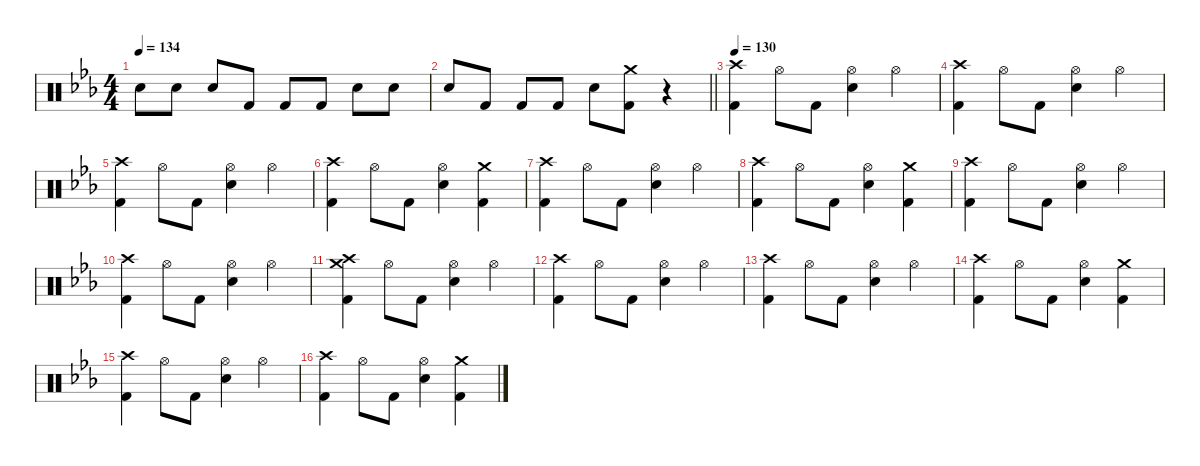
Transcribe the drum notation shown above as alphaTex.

\defaultSystemsLayout 4
\hideDynamics
\bracketExtendMode nobrackets
\singleTrackTrackNamePolicy hidden
\multiTrackTrackNamePolicy hidden
\firstSystemTrackNameMode fullname
\otherSystemsTrackNameOrientation horizontal
\track ("Drums" "drm.") {instrument percussion}
\staff {score}
\articulation defaults
\ts (4 4)
\tempo 134
\clef neutral
\ks cminor "Snare (hit) 2"{acc forcenatural}.8{dy f beam Down} "Snare (hit) 2"{acc forcenatural}.8{beam Down} "Snare (hit) 2"{acc forcenatural}.8{beam Up} "Kick (hit) 2"{acc forcenatural}.8{beam Up} "Kick (hit) 2"{acc forcenatural}.8{beam Up} "Kick (hit) 2"{acc forcenatural}.8{beam Up} "Snare (hit) 2"{acc forcenatural}.8{beam Down} "Snare (hit) 2"{acc forcenatural}.8{beam Down}
|
\barLineRight lightlight "Snare (hit) 2"{acc forcenatural}.8{beam Up} "Kick (hit) 2"{acc forcenatural}.8{beam Up} "Kick (hit) 2"{acc forcenatural}.8{beam Up} "Kick (hit) 2"{acc forcenatural}.8{beam Up} "Snare (hit) 2"{acc forcenatural}.8{beam Down}
("Crash medium (hit)"{acc forcenatural} "Kick (hit) 2"{acc forcenatural}).8{beam Down} r.4{beam Down} |
\tempo 130
("Crash high (hit)"{acc forcenatural} "Kick (hit) 2"{acc forcenatural}).4{dy mp beam Down} "Hi-Hat (open)"{acc forcenatural}.8{beam Down} "Kick (hit) 2"{acc forcenatural}.8{dy f beam Down} ("Hi-Hat (open)"{acc forcenatural} "Snare (hit) 2"{acc forcenatural}).4{dy mp beam Down} "Hi-Hat (open)"{acc forcenatural}.4{beam Down} |
("Crash high (hit)"{acc forcenatural} "Kick (hit) 2"{acc forcenatural}).4{beam Down} "Hi-Hat (open)"{acc forcenatural}.8{beam Down} "Kick (hit) 2"{acc forcenatural}.8{dy f beam Down} ("Hi-Hat (open)"{acc forcenatural} "Snare (hit) 2"{acc forcenatural}).4{dy mp beam Down} "Hi-Hat (open)"{acc forcenatural}.4{beam Down} |
("Crash high (hit)"{acc forcenatural} "Kick (hit) 2"{acc forcenatural}).4{beam Down} "Hi-Hat (open)"{acc forcenatural}.8{beam Down} "Kick (hit) 2"{acc forcenatural}.8{dy f beam Down} ("Hi-Hat (open)"{acc forcenatural} "Snare (hit) 2"{acc forcenatural}).4{dy mp beam Down} "Hi-Hat (open)"{acc forcenatural}.4{beam Down} |
("Crash high (hit)"{acc forcenatural} "Kick (hit) 2"{acc forcenatural}).4{beam Down} "Hi-Hat (open)"{acc forcenatural}.8{beam Down} "Kick (hit) 2"{acc forcenatural}.8{dy f beam Down} ("Hi-Hat (open)"{acc forcenatural} "Snare (hit) 2"{acc forcenatural}).4{dy mp beam Down} ("Crash medium (hit)"{acc forcenatural} "Kick (hit) 2"{acc forcenatural}).4{beam Down} |
("Crash high (hit)"{acc forcenatural} "Kick (hit) 2"{acc forcenatural}).4{beam Down} "Hi-Hat (open)"{acc forcenatural}.8{beam Down} "Kick (hit) 2"{acc forcenatural}.8{dy f beam Down} ("Hi-Hat (open)"{acc forcenatural} "Snare (hit) 2"{acc forcenatural}).4{dy mp beam Down} "Hi-Hat (open)"{acc forcenatural}.4{beam Down} |
("Crash high (hit)"{acc forcenatural} "Kick (hit) 2"{acc forcenatural}).4{beam Down} "Hi-Hat (open)"{acc forcenatural}.8{beam Down} "Kick (hit) 2"{acc forcenatural}.8{dy f beam Down} ("Hi-Hat (open)"{acc forcenatural} "Snare (hit) 2"{acc forcenatural}).4{dy mp beam Down} ("Crash medium (hit)"{acc forcenatural} "Kick (hit) 2"{acc forcenatural}).4{beam Down} |
("Crash high (hit)"{acc forcenatural} "Kick (hit) 2"{acc forcenatural}).4{beam Down} "Hi-Hat (open)"{acc forcenatural}.8{beam Down} "Kick (hit) 2"{acc forcenatural}.8{dy f beam Down} ("Hi-Hat (open)"{acc forcenatural} "Snare (hit) 2"{acc forcenatural}).4{dy mp beam Down} "Hi-Hat (open)"{acc forcenatural}.4{beam Down} |
("Crash high (hit)"{acc forcenatural} "Kick (hit) 2"{acc forcenatural}).4{beam Down} "Hi-Hat (open)"{acc forcenatural}.8{beam Down} "Kick (hit) 2"{acc forcenatural}.8{dy f beam Down} ("Hi-Hat (open)"{acc forcenatural} "Snare (hit) 2"{acc forcenatural}).4{dy mp beam Down} "Hi-Hat (open)"{acc forcenatural}.4{beam Down} |
("Crash medium (hit)"{acc forcenatural} "Crash high (hit)"{acc forcenatural} "Kick (hit) 2"{acc forcenatural}).4{dy f beam Down} "Hi-Hat (open)"{acc forcenatural}.8{dy mp beam Down} "Kick (hit) 2"{acc forcenatural}.8{dy f beam Down} ("Hi-Hat (open)"{acc forcenatural} "Snare (hit) 2"{acc forcenatural}).4{dy mp beam Down} "Hi-Hat (open)"{acc forcenatural}.4{beam Down} |
("Crash high (hit)"{acc forcenatural} "Kick (hit) 2"{acc forcenatural}).4{beam Down} "Hi-Hat (open)"{acc forcenatural}.8{beam Down} "Kick (hit) 2"{acc forcenatural}.8{dy f beam Down} ("Hi-Hat (open)"{acc forcenatural} "Snare (hit) 2"{acc forcenatural}).4{dy mp beam Down} "Hi-Hat (open)"{acc forcenatural}.4{beam Down} |
("Crash high (hit)"{acc forcenatural} "Kick (hit) 2"{acc forcenatural}).4{beam Down} "Hi-Hat (open)"{acc forcenatural}.8{beam Down} "Kick (hit) 2"{acc forcenatural}.8{dy f beam Down} ("Hi-Hat (open)"{acc forcenatural} "Snare (hit) 2"{acc forcenatural}).4{dy mp beam Down} "Hi-Hat (open)"{acc forcenatural}.4{beam Down} |
("Crash high (hit)"{acc forcenatural} "Kick (hit) 2"{acc forcenatural}).4{beam Down} "Hi-Hat (open)"{acc forcenatural}.8{beam Down} "Kick (hit) 2"{acc forcenatural}.8{dy f beam Down} ("Hi-Hat (open)"{acc forcenatural} "Snare (hit) 2"{acc forcenatural}).4{dy mp beam Down} ("Crash medium (hit)"{acc forcenatural} "Kick (hit) 2"{acc forcenatural}).4{beam Down} |
("Crash high (hit)"{acc forcenatural} "Kick (hit) 2"{acc forcenatural}).4{beam Down} "Hi-Hat (open)"{acc forcenatural}.8{beam Down} "Kick (hit) 2"{acc forcenatural}.8{dy f beam Down} ("Hi-Hat (open)"{acc forcenatural} "Snare (hit) 2"{acc forcenatural}).4{dy mp beam Down} "Hi-Hat (open)"{acc forcenatural}.4{beam Down} |
("Crash high (hit)"{acc forcenatural} "Kick (hit) 2"{acc forcenatural}).4{beam Down} "Hi-Hat (open)"{acc forcenatural}.8{beam Down} "Kick (hit) 2"{acc forcenatural}.8{dy f beam Down} ("Hi-Hat (open)"{acc forcenatural} "Snare (hit) 2"{acc forcenatural}).4{dy mp beam Down} ("Crash medium (hit)"{acc forcenatural} "Kick (hit) 2"{acc forcenatural}).4{beam Down}
